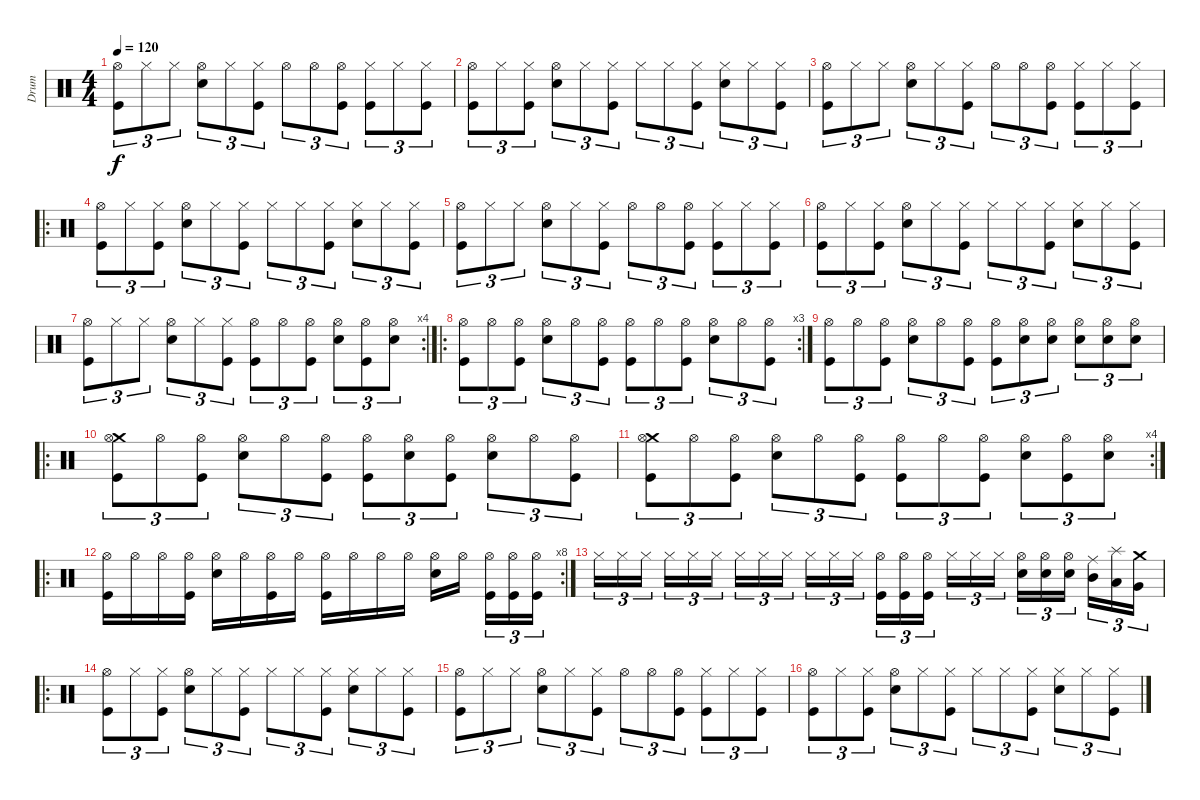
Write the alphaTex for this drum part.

\track ("Drum" "Drum") {instrument percussion}
\staff {score}
\articulation defaults
\ts (4 4)
\tempo 120
\clef neutral
\ks c
("Hi-Hat (open)" "Kick (hit)").8{tu (3 2) dy f} "Hi-Hat (closed)".8{tu (3 2)} "Hi-Hat (closed)".8{tu (3 2)} ("Hi-Hat (open)" "Electric Snare (hit)").8{tu (3 2)} "Hi-Hat (closed)".8{tu (3 2)} ("Hi-Hat (closed)" "Kick (hit)").8{tu (3 2)} "Hi-Hat (open)".8{tu (3 2)} "Hi-Hat (open)".8{tu (3 2)} ("Hi-Hat (open)" "Kick (hit)").8{tu (3 2)} ("Hi-Hat (closed)" "Kick (hit)").8{tu (3 2)} "Hi-Hat (closed)".8{tu (3 2)} ("Hi-Hat (closed)" "Kick (hit)").8{tu (3 2)} |
("Hi-Hat (open)" "Kick (hit)").8{tu (3 2)} "Hi-Hat (closed)".8{tu (3 2)} ("Hi-Hat (closed)" "Kick (hit)").8{tu (3 2)} ("Hi-Hat (open)" "Electric Snare (hit)").8{tu (3 2)} "Hi-Hat (closed)".8{tu (3 2)} ("Hi-Hat (closed)" "Kick (hit)").8{tu (3 2)} "Hi-Hat (closed)".8{tu (3 2)} "Hi-Hat (closed)".8{tu (3 2)} ("Hi-Hat (closed)" "Kick (hit)").8{tu (3 2)} ("Hi-Hat (closed)" "Electric Snare (hit)").8{tu (3 2)} "Hi-Hat (closed)".8{tu (3 2)} ("Hi-Hat (closed)" "Kick (hit)").8{tu (3 2)} |
("Hi-Hat (open)" "Kick (hit)").8{tu (3 2)} "Hi-Hat (closed)".8{tu (3 2)} "Hi-Hat (closed)".8{tu (3 2)} ("Hi-Hat (open)" "Electric Snare (hit)").8{tu (3 2)} "Hi-Hat (closed)".8{tu (3 2)} ("Hi-Hat (closed)" "Kick (hit)").8{tu (3 2)} "Hi-Hat (open)".8{tu (3 2)} "Hi-Hat (open)".8{tu (3 2)} ("Hi-Hat (open)" "Kick (hit)").8{tu (3 2)} ("Hi-Hat (closed)" "Kick (hit)").8{tu (3 2)} "Hi-Hat (closed)".8{tu (3 2)} ("Hi-Hat (closed)" "Kick (hit)").8{tu (3 2)} |
\ro
("Hi-Hat (open)" "Kick (hit)").8{tu (3 2)} "Hi-Hat (closed)".8{tu (3 2)} ("Hi-Hat (closed)" "Kick (hit)").8{tu (3 2)} ("Hi-Hat (open)" "Electric Snare (hit)").8{tu (3 2)} "Hi-Hat (closed)".8{tu (3 2)} ("Hi-Hat (closed)" "Kick (hit)").8{tu (3 2)} "Hi-Hat (closed)".8{tu (3 2)} "Hi-Hat (closed)".8{tu (3 2)} ("Hi-Hat (closed)" "Kick (hit)").8{tu (3 2)} ("Hi-Hat (closed)" "Electric Snare (hit)").8{tu (3 2)} "Hi-Hat (closed)".8{tu (3 2)} ("Hi-Hat (closed)" "Kick (hit)").8{tu (3 2)} |
("Hi-Hat (open)" "Kick (hit)").8{tu (3 2)} "Hi-Hat (closed)".8{tu (3 2)} "Hi-Hat (closed)".8{tu (3 2)} ("Hi-Hat (open)" "Electric Snare (hit)").8{tu (3 2)} "Hi-Hat (closed)".8{tu (3 2)} ("Hi-Hat (closed)" "Kick (hit)").8{tu (3 2)} "Hi-Hat (open)".8{tu (3 2)} "Hi-Hat (open)".8{tu (3 2)} ("Hi-Hat (open)" "Kick (hit)").8{tu (3 2)} ("Hi-Hat (closed)" "Kick (hit)").8{tu (3 2)} "Hi-Hat (closed)".8{tu (3 2)} ("Hi-Hat (closed)" "Kick (hit)").8{tu (3 2)} |
("Hi-Hat (open)" "Kick (hit)").8{tu (3 2)} "Hi-Hat (closed)".8{tu (3 2)} ("Hi-Hat (closed)" "Kick (hit)").8{tu (3 2)} ("Hi-Hat (open)" "Electric Snare (hit)").8{tu (3 2)} "Hi-Hat (closed)".8{tu (3 2)} ("Hi-Hat (closed)" "Kick (hit)").8{tu (3 2)} "Hi-Hat (closed)".8{tu (3 2)} "Hi-Hat (closed)".8{tu (3 2)} ("Hi-Hat (closed)" "Kick (hit)").8{tu (3 2)} ("Hi-Hat (closed)" "Electric Snare (hit)").8{tu (3 2)} "Hi-Hat (closed)".8{tu (3 2)} ("Hi-Hat (closed)" "Kick (hit)").8{tu (3 2)} |
\rc 4
("Hi-Hat (open)" "Kick (hit)").8{tu (3 2)} "Hi-Hat (closed)".8{tu (3 2)} "Hi-Hat (closed)".8{tu (3 2)} ("Hi-Hat (open)" "Electric Snare (hit)").8{tu (3 2)} "Hi-Hat (closed)".8{tu (3 2)} ("Hi-Hat (closed)" "Kick (hit)").8{tu (3 2)} ("Hi-Hat (open)" "Kick (hit)").8{tu (3 2)} "Hi-Hat (open)".8{tu (3 2)} ("Hi-Hat (open)" "Kick (hit)").8{tu (3 2)} ("Hi-Hat (open)" "Electric Snare (hit)").8{tu (3 2)} ("Hi-Hat (open)" "Kick (hit)").8{tu (3 2)} ("Hi-Hat (open)" "Electric Snare (hit)").8{tu (3 2)} |
\ro
\rc 3
("Hi-Hat (open)" "Kick (hit)").8{tu (3 2)} "Hi-Hat (open)".8{tu (3 2)} ("Hi-Hat (open)" "Kick (hit)").8{tu (3 2)} ("Hi-Hat (open)" "Electric Snare (hit)").8{tu (3 2)} "Hi-Hat (open)".8{tu (3 2)} ("Hi-Hat (open)" "Kick (hit)").8{tu (3 2)} ("Hi-Hat (open)" "Kick (hit)").8{tu (3 2)} "Hi-Hat (open)".8{tu (3 2)} ("Hi-Hat (open)" "Kick (hit)").8{tu (3 2)} ("Hi-Hat (open)" "Electric Snare (hit)").8{tu (3 2)} "Hi-Hat (open)".8{tu (3 2)} ("Hi-Hat (open)" "Kick (hit)").8{tu (3 2)} |
("Hi-Hat (open)" "Kick (hit)").8{tu (3 2)} "Hi-Hat (open)".8{tu (3 2)} ("Hi-Hat (open)" "Kick (hit)").8{tu (3 2)} ("Hi-Hat (open)" "Electric Snare (hit)").8{tu (3 2)} "Hi-Hat (open)".8{tu (3 2)} ("Hi-Hat (open)" "Kick (hit)").8{tu (3 2)} ("Hi-Hat (open)" "Kick (hit)").8{tu (3 2)} ("Hi-Hat (open)" "Electric Snare (hit)").8{tu (3 2)} ("Hi-Hat (open)" "Electric Snare (hit)").8{tu (3 2)} ("Hi-Hat (open)" "Electric Snare (hit)").8{tu (3 2)} ("Hi-Hat (open)" "Electric Snare (hit)").8{tu (3 2)} ("Hi-Hat (open)" "Electric Snare (hit)").8{tu (3 2)} |
\ro
("Crash medium (hit)" "Hi-Hat (open)" "Kick (hit)").8{tu (3 2)} "Hi-Hat (open)".8{tu (3 2)} ("Hi-Hat (open)" "Kick (hit)").8{tu (3 2)} ("Hi-Hat (open)" "Electric Snare (hit)").8{tu (3 2)} "Hi-Hat (open)".8{tu (3 2)} ("Hi-Hat (open)" "Kick (hit)").8{tu (3 2)} ("Hi-Hat (open)" "Kick (hit)").8{tu (3 2)} ("Hi-Hat (open)" "Electric Snare (hit)").8{tu (3 2)} ("Hi-Hat (open)" "Kick (hit)").8{tu (3 2)} ("Hi-Hat (open)" "Electric Snare (hit)").8{tu (3 2)} "Hi-Hat (open)".8{tu (3 2)} ("Hi-Hat (open)" "Kick (hit)").8{tu (3 2)} |
\rc 4
("Crash medium (hit)" "Hi-Hat (open)" "Kick (hit)").8{tu (3 2)} "Hi-Hat (open)".8{tu (3 2)} ("Hi-Hat (open)" "Kick (hit)").8{tu (3 2)} ("Hi-Hat (open)" "Electric Snare (hit)").8{tu (3 2)} "Hi-Hat (open)".8{tu (3 2)} ("Hi-Hat (open)" "Kick (hit)").8{tu (3 2)} ("Hi-Hat (open)" "Kick (hit)").8{tu (3 2)} "Hi-Hat (open)".8{tu (3 2)} ("Hi-Hat (open)" "Kick (hit)").8{tu (3 2)} ("Hi-Hat (open)" "Electric Snare (hit)").8{tu (3 2)} ("Hi-Hat (open)" "Kick (hit)").8{tu (3 2)} ("Hi-Hat (open)" "Electric Snare (hit)").8{tu (3 2)} |
\ro
\rc 8
("Hi-Hat (open)" "Kick (hit)").16 "Hi-Hat (open)".16 "Hi-Hat (open)".16 ("Hi-Hat (open)" "Kick (hit)").16 ("Hi-Hat (open)" "Electric Snare (hit)").16 "Hi-Hat (open)".16 ("Hi-Hat (open)" "Kick (hit)").16 "Hi-Hat (open)".16 ("Hi-Hat (open)" "Kick (hit)").16 "Hi-Hat (open)".16 "Hi-Hat (open)".16 "Hi-Hat (open)".16 ("Hi-Hat (open)" "Electric Snare (hit)").16 "Hi-Hat (open)".16 ("Hi-Hat (open)" "Kick (hit)").16{tu (3 2)} ("Hi-Hat (open)" "Kick (hit)").16{tu (3 2)} ("Hi-Hat (open)" "Kick (hit)").16{tu (3 2)} |
"Hi-Hat (closed)".16{tu (3 2)} "Hi-Hat (closed)".16{tu (3 2)} "Hi-Hat (closed)".16{tu (3 2)} "Hi-Hat (closed)".16{tu (3 2)} "Hi-Hat (closed)".16{tu (3 2)} "Hi-Hat (closed)".16{tu (3 2)} "Hi-Hat (closed)".16{tu (3 2)} "Hi-Hat (closed)".16{tu (3 2)} "Hi-Hat (closed)".16{tu (3 2)} "Hi-Hat (closed)".16{tu (3 2)} "Hi-Hat (closed)".16{tu (3 2)} "Hi-Hat (closed)".16{tu (3 2)} ("Hi-Hat (open)" "Kick (hit)").16{tu (3 2)} ("Hi-Hat (open)" "Kick (hit)").16{tu (3 2)} ("Hi-Hat (open)" "Kick (hit)").16{tu (3 2)} "Hi-Hat (closed)".16{tu (3 2)} "Hi-Hat (closed)".16{tu (3 2)} "Hi-Hat (closed)".16{tu (3 2)} ("Hi-Hat (open)" "Electric Snare (hit)").16{tu (3 2)} ("Hi-Hat (open)" "Electric Snare (hit)").16{tu (3 2)} ("Hi-Hat (open)" "Electric Snare (hit)").16{tu (3 2)} ("Ride (middle)" "Mid Tom (hit)").16{tu (3 2)} ("Splash (hit)" "Low Tom (hit)").16{tu (3 2)} ("Crash medium (hit)" "Very Low Tom (hit)").16{tu (3 2)} |
\ro
("Hi-Hat (open)" "Kick (hit)").8{tu (3 2)} "Hi-Hat (closed)".8{tu (3 2)} ("Hi-Hat (closed)" "Kick (hit)").8{tu (3 2)} ("Hi-Hat (open)" "Electric Snare (hit)").8{tu (3 2)} "Hi-Hat (closed)".8{tu (3 2)} ("Hi-Hat (closed)" "Kick (hit)").8{tu (3 2)} "Hi-Hat (closed)".8{tu (3 2)} "Hi-Hat (closed)".8{tu (3 2)} ("Hi-Hat (closed)" "Kick (hit)").8{tu (3 2)} ("Hi-Hat (closed)" "Electric Snare (hit)").8{tu (3 2)} "Hi-Hat (closed)".8{tu (3 2)} ("Hi-Hat (closed)" "Kick (hit)").8{tu (3 2)} |
("Hi-Hat (open)" "Kick (hit)").8{tu (3 2)} "Hi-Hat (closed)".8{tu (3 2)} "Hi-Hat (closed)".8{tu (3 2)} ("Hi-Hat (open)" "Electric Snare (hit)").8{tu (3 2)} "Hi-Hat (closed)".8{tu (3 2)} ("Hi-Hat (closed)" "Kick (hit)").8{tu (3 2)} "Hi-Hat (open)".8{tu (3 2)} "Hi-Hat (open)".8{tu (3 2)} ("Hi-Hat (open)" "Kick (hit)").8{tu (3 2)} ("Hi-Hat (closed)" "Kick (hit)").8{tu (3 2)} "Hi-Hat (closed)".8{tu (3 2)} ("Hi-Hat (closed)" "Kick (hit)").8{tu (3 2)} |
("Hi-Hat (open)" "Kick (hit)").8{tu (3 2)} "Hi-Hat (closed)".8{tu (3 2)} ("Hi-Hat (closed)" "Kick (hit)").8{tu (3 2)} ("Hi-Hat (open)" "Electric Snare (hit)").8{tu (3 2)} "Hi-Hat (closed)".8{tu (3 2)} ("Hi-Hat (closed)" "Kick (hit)").8{tu (3 2)} "Hi-Hat (closed)".8{tu (3 2)} "Hi-Hat (closed)".8{tu (3 2)} ("Hi-Hat (closed)" "Kick (hit)").8{tu (3 2)} ("Hi-Hat (closed)" "Electric Snare (hit)").8{tu (3 2)} "Hi-Hat (closed)".8{tu (3 2)} ("Hi-Hat (closed)" "Kick (hit)").8{tu (3 2)}
